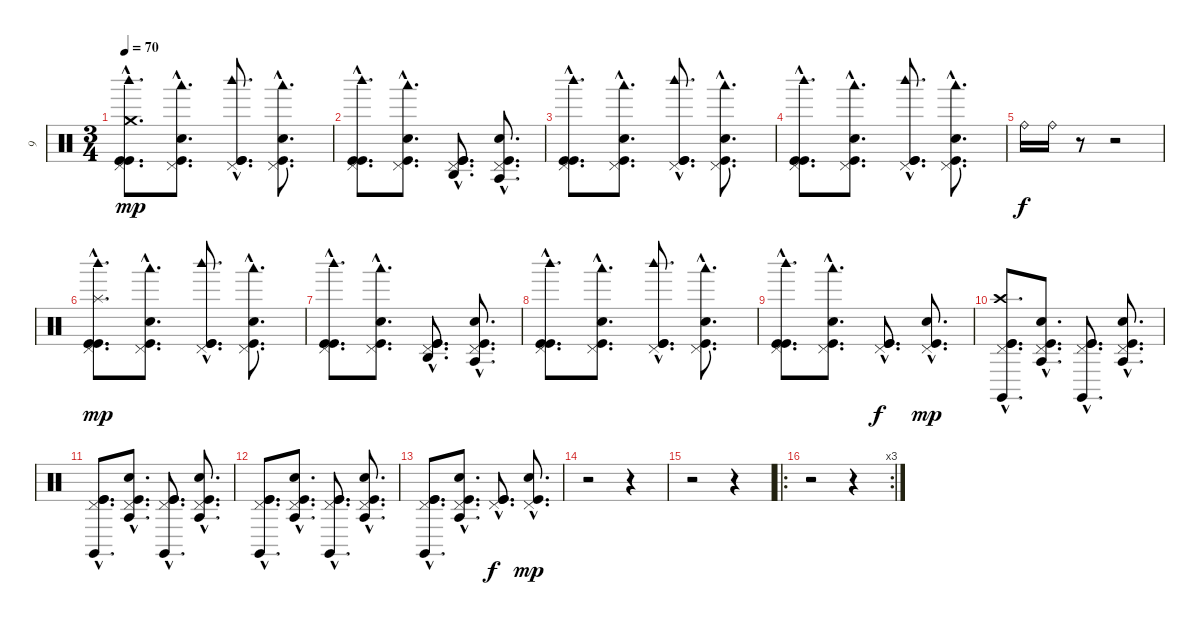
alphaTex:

\track ("9" "9") {instrument percussion}
\staff {score}
\articulation defaults
\ts (3 4)
\tempo 70
\clef neutral
\ks c
("Kick (hit)"{hac} "Kick (hit)"{hac} "Woodblock high (hit)"{hac} "Pedal Hi-Hat (hit)"{hac} "Crash medium (hit)"{hac}).8{d dy mp} ("Kick (hit)"{hac} "Snare (hit) 2"{hac} "Woodblock low (hit)"{hac} "Pedal Hi-Hat (hit)"{hac}).8{d} ("Kick (hit)"{hac} "Kick (hit)"{hac} "Woodblock high (hit)"{hac} "Pedal Hi-Hat (hit)"{hac}).8{d} ("Kick (hit)"{hac} "Snare (hit) 2"{hac} "Woodblock low (hit)"{hac} "Pedal Hi-Hat (hit)"{hac}).8{d} |
("Kick (hit)"{hac} "Kick (hit)"{hac} "Woodblock high (hit)"{hac} "Pedal Hi-Hat (hit)"{hac}).8{d} ("Kick (hit)"{hac} "Snare (hit) 2"{hac} "Woodblock low (hit)"{hac} "Pedal Hi-Hat (hit)"{hac}).8{d} ("Kick (hit)"{hac} "Kick (hit)"{hac} "Agogo high (hit)"{hac} "Pedal Hi-Hat (hit)"{hac}).8{d} ("Kick (hit)"{hac} "Snare (hit) 2"{hac} "Agogo tow (hit)"{hac} "Pedal Hi-Hat (hit)"{hac}).8{d} |
("Kick (hit)"{hac} "Kick (hit)"{hac} "Woodblock high (hit)"{hac} "Pedal Hi-Hat (hit)"{hac}).8{d} ("Kick (hit)"{hac} "Snare (hit) 2"{hac} "Woodblock low (hit)"{hac} "Pedal Hi-Hat (hit)"{hac}).8{d} ("Kick (hit)"{hac} "Kick (hit)"{hac} "Woodblock high (hit)"{hac} "Pedal Hi-Hat (hit)"{hac}).8{d} ("Kick (hit)"{hac} "Snare (hit) 2"{hac} "Woodblock low (hit)"{hac} "Pedal Hi-Hat (hit)"{hac}).8{d} |
("Kick (hit)"{hac} "Kick (hit)"{hac} "Woodblock high (hit)"{hac} "Pedal Hi-Hat (hit)"{hac}).8{d} ("Kick (hit)"{hac} "Snare (hit) 2"{hac} "Woodblock low (hit)"{hac} "Pedal Hi-Hat (hit)"{hac}).8{d} ("Kick (hit)"{hac} "Kick (hit)"{hac} "Woodblock high (hit)"{hac} "Pedal Hi-Hat (hit)"{hac}).8{d} ("Kick (hit)"{hac} "Snare (hit) 2"{hac} "Woodblock low (hit)"{hac} "Pedal Hi-Hat (hit)"{hac}).8{d} |
"Ride (bell)".16{dy f} "Ride (bell)".16 r.8 r.2 |
("Kick (hit)"{hac} "Kick (hit)"{hac} "Woodblock high (hit)"{hac} "Pedal Hi-Hat (hit)"{hac} "Splash (hit)"{hac}).8{d dy mp} ("Kick (hit)"{hac} "Snare (hit) 2"{hac} "Woodblock low (hit)"{hac} "Pedal Hi-Hat (hit)"{hac}).8{d} ("Kick (hit)"{hac} "Kick (hit)"{hac} "Woodblock high (hit)"{hac} "Pedal Hi-Hat (hit)"{hac}).8{d} ("Kick (hit)"{hac} "Snare (hit) 2"{hac} "Woodblock low (hit)"{hac} "Pedal Hi-Hat (hit)"{hac}).8{d} |
("Kick (hit)"{hac} "Kick (hit)"{hac} "Woodblock high (hit)"{hac} "Pedal Hi-Hat (hit)"{hac}).8{d} ("Kick (hit)"{hac} "Snare (hit) 2"{hac} "Woodblock low (hit)"{hac} "Pedal Hi-Hat (hit)"{hac}).8{d} ("Kick (hit)"{hac} "Kick (hit)"{hac} "Agogo high (hit)"{hac} "Pedal Hi-Hat (hit)"{hac}).8{d} ("Kick (hit)"{hac} "Snare (hit) 2"{hac} "Agogo tow (hit)"{hac} "Pedal Hi-Hat (hit)"{hac}).8{d} |
("Kick (hit)"{hac} "Kick (hit)"{hac} "Woodblock high (hit)"{hac} "Pedal Hi-Hat (hit)"{hac}).8{d} ("Kick (hit)"{hac} "Snare (hit) 2"{hac} "Woodblock low (hit)"{hac} "Pedal Hi-Hat (hit)"{hac}).8{d} ("Kick (hit)"{hac} "Kick (hit)"{hac} "Woodblock high (hit)"{hac} "Pedal Hi-Hat (hit)"{hac}).8{d} ("Kick (hit)"{hac} "Snare (hit) 2"{hac} "Woodblock low (hit)"{hac} "Pedal Hi-Hat (hit)"{hac}).8{d} |
("Kick (hit)"{hac} "Kick (hit)"{hac} "Woodblock high (hit)"{hac} "Pedal Hi-Hat (hit)"{hac}).8{d} ("Kick (hit)"{hac} "Snare (hit) 2"{hac} "Woodblock low (hit)"{hac} "Pedal Hi-Hat (hit)"{hac}).8{d} ("Kick (hit)"{hac} "Kick (hit)"{hac} "Pedal Hi-Hat (hit)"{hac}).8{d dy f} ("Kick (hit)"{hac} "Snare (hit) 2"{hac} "Pedal Hi-Hat (hit)"{hac}).8{d dy mp} |
("Kick (hit)"{hac} "Kick (hit)"{hac} "Claves (hit)"{hac} "Pedal Hi-Hat (hit)"{hac} "Crash high (hit)"{hac}).8{d} ("Kick (hit)"{hac} "Snare (hit) 2"{hac} "Agogo tow (hit)"{hac} "Pedal Hi-Hat (hit)"{hac}).8{d} ("Kick (hit)"{hac} "Kick (hit)"{hac} "Claves (hit)"{hac} "Pedal Hi-Hat (hit)"{hac}).8{d} ("Kick (hit)"{hac} "Snare (hit) 2"{hac} "Agogo tow (hit)"{hac} "Pedal Hi-Hat (hit)"{hac}).8{d} |
("Kick (hit)"{hac} "Kick (hit)"{hac} "Claves (hit)"{hac} "Pedal Hi-Hat (hit)"{hac}).8{d} ("Kick (hit)"{hac} "Snare (hit) 2"{hac} "Agogo tow (hit)"{hac} "Pedal Hi-Hat (hit)"{hac}).8{d} ("Kick (hit)"{hac} "Kick (hit)"{hac} "Claves (hit)"{hac} "Pedal Hi-Hat (hit)"{hac}).8{d} ("Kick (hit)"{hac} "Snare (hit) 2"{hac} "Agogo tow (hit)"{hac} "Pedal Hi-Hat (hit)"{hac}).8{d} |
("Kick (hit)"{hac} "Kick (hit)"{hac} "Claves (hit)"{hac} "Pedal Hi-Hat (hit)"{hac}).8{d} ("Kick (hit)"{hac} "Snare (hit) 2"{hac} "Agogo tow (hit)"{hac} "Pedal Hi-Hat (hit)"{hac}).8{d} ("Kick (hit)"{hac} "Kick (hit)"{hac} "Claves (hit)"{hac} "Pedal Hi-Hat (hit)"{hac}).8{d} ("Kick (hit)"{hac} "Snare (hit) 2"{hac} "Agogo tow (hit)"{hac} "Pedal Hi-Hat (hit)"{hac}).8{d} |
("Kick (hit)"{hac} "Kick (hit)"{hac} "Claves (hit)"{hac} "Pedal Hi-Hat (hit)"{hac}).8{d} ("Kick (hit)"{hac} "Snare (hit) 2"{hac} "Agogo tow (hit)"{hac} "Pedal Hi-Hat (hit)"{hac}).8{d} ("Kick (hit)"{hac} "Kick (hit)"{hac} "Pedal Hi-Hat (hit)"{hac}).8{d dy f} ("Kick (hit)"{hac} "Snare (hit) 2"{hac} "Pedal Hi-Hat (hit)"{hac}).8{d dy mp} |
r.2 r.4 |
r.2 r.4 |
\ro
\rc 3
r.2 r.4
